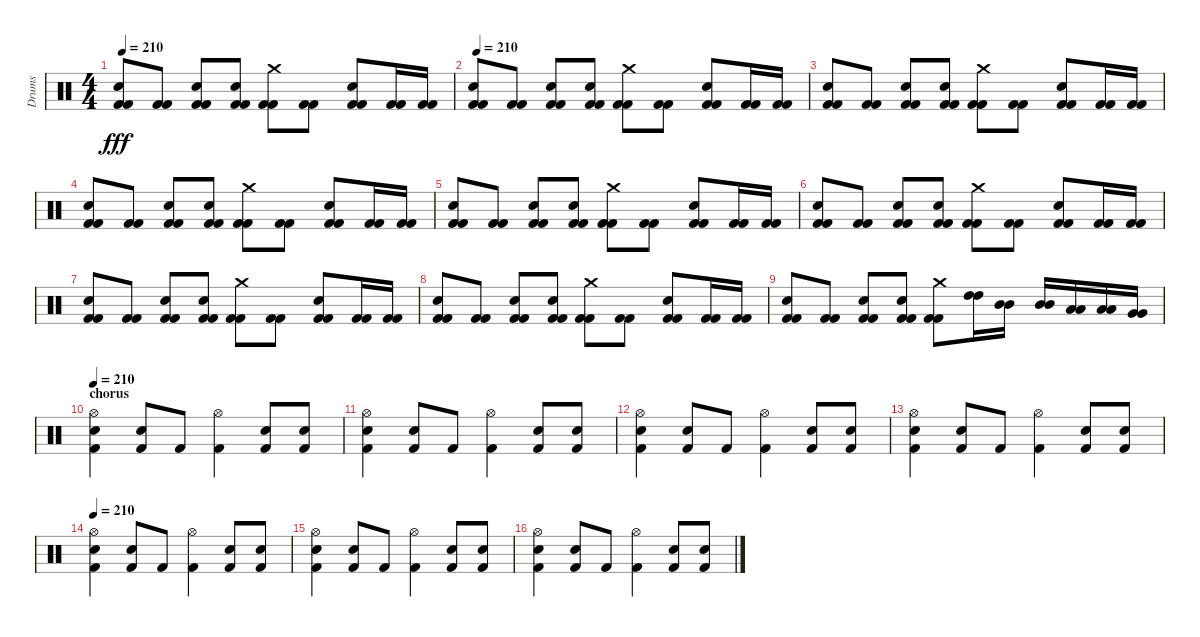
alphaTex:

\track ("Drums" "Drums") {instrument percussion}
\staff {score}
\articulation defaults
\ts (4 4)
\tempo 210
\clef neutral
\ks c
("Electric Snare (hit)" "Kick (hit) 2" "Kick (hit) 2").8{dy fff} ("Kick (hit) 2" "Kick (hit) 2").8 ("Electric Snare (hit)" "Kick (hit) 2" "Kick (hit) 2").8 ("Electric Snare (hit)" "Kick (hit) 2" "Kick (hit) 2").8 ("Crash medium (hit)" "Kick (hit) 2" "Kick (hit) 2").8 ("Kick (hit) 2" "Kick (hit) 2").8 ("Electric Snare (hit)" "Kick (hit) 2" "Kick (hit) 2").8 ("Kick (hit) 2" "Kick (hit) 2").16 ("Kick (hit) 2" "Kick (hit) 2").16 |
\tempo 210
("Electric Snare (hit)" "Kick (hit) 2" "Kick (hit) 2").8 ("Kick (hit) 2" "Kick (hit) 2").8 ("Electric Snare (hit)" "Kick (hit) 2" "Kick (hit) 2").8 ("Electric Snare (hit)" "Kick (hit) 2" "Kick (hit) 2").8 ("Crash medium (hit)" "Kick (hit) 2" "Kick (hit) 2").8 ("Kick (hit) 2" "Kick (hit) 2").8 ("Electric Snare (hit)" "Kick (hit) 2" "Kick (hit) 2").8 ("Kick (hit) 2" "Kick (hit) 2").16 ("Kick (hit) 2" "Kick (hit) 2").16 |
("Electric Snare (hit)" "Kick (hit) 2" "Kick (hit) 2").8 ("Kick (hit) 2" "Kick (hit) 2").8 ("Electric Snare (hit)" "Kick (hit) 2" "Kick (hit) 2").8 ("Electric Snare (hit)" "Kick (hit) 2" "Kick (hit) 2").8 ("Crash medium (hit)" "Kick (hit) 2" "Kick (hit) 2").8 ("Kick (hit) 2" "Kick (hit) 2").8 ("Electric Snare (hit)" "Kick (hit) 2" "Kick (hit) 2").8 ("Kick (hit) 2" "Kick (hit) 2").16 ("Kick (hit) 2" "Kick (hit) 2").16 |
("Electric Snare (hit)" "Kick (hit) 2" "Kick (hit) 2").8 ("Kick (hit) 2" "Kick (hit) 2").8 ("Electric Snare (hit)" "Kick (hit) 2" "Kick (hit) 2").8 ("Electric Snare (hit)" "Kick (hit) 2" "Kick (hit) 2").8 ("Crash medium (hit)" "Kick (hit) 2" "Kick (hit) 2").8 ("Kick (hit) 2" "Kick (hit) 2").8 ("Electric Snare (hit)" "Kick (hit) 2" "Kick (hit) 2").8 ("Kick (hit) 2" "Kick (hit) 2").16 ("Kick (hit) 2" "Kick (hit) 2").16 |
("Electric Snare (hit)" "Kick (hit) 2" "Kick (hit) 2").8 ("Kick (hit) 2" "Kick (hit) 2").8 ("Electric Snare (hit)" "Kick (hit) 2" "Kick (hit) 2").8 ("Electric Snare (hit)" "Kick (hit) 2" "Kick (hit) 2").8 ("Crash medium (hit)" "Kick (hit) 2" "Kick (hit) 2").8 ("Kick (hit) 2" "Kick (hit) 2").8 ("Electric Snare (hit)" "Kick (hit) 2" "Kick (hit) 2").8 ("Kick (hit) 2" "Kick (hit) 2").16 ("Kick (hit) 2" "Kick (hit) 2").16 |
("Electric Snare (hit)" "Kick (hit) 2" "Kick (hit) 2").8 ("Kick (hit) 2" "Kick (hit) 2").8 ("Electric Snare (hit)" "Kick (hit) 2" "Kick (hit) 2").8 ("Electric Snare (hit)" "Kick (hit) 2" "Kick (hit) 2").8 ("Crash medium (hit)" "Kick (hit) 2" "Kick (hit) 2").8 ("Kick (hit) 2" "Kick (hit) 2").8 ("Electric Snare (hit)" "Kick (hit) 2" "Kick (hit) 2").8 ("Kick (hit) 2" "Kick (hit) 2").16 ("Kick (hit) 2" "Kick (hit) 2").16 |
("Electric Snare (hit)" "Kick (hit) 2" "Kick (hit) 2").8 ("Kick (hit) 2" "Kick (hit) 2").8 ("Electric Snare (hit)" "Kick (hit) 2" "Kick (hit) 2").8 ("Electric Snare (hit)" "Kick (hit) 2" "Kick (hit) 2").8 ("Crash medium (hit)" "Kick (hit) 2" "Kick (hit) 2").8 ("Kick (hit) 2" "Kick (hit) 2").8 ("Electric Snare (hit)" "Kick (hit) 2" "Kick (hit) 2").8 ("Kick (hit) 2" "Kick (hit) 2").16 ("Kick (hit) 2" "Kick (hit) 2").16 |
("Electric Snare (hit)" "Kick (hit) 2" "Kick (hit) 2").8 ("Kick (hit) 2" "Kick (hit) 2").8 ("Electric Snare (hit)" "Kick (hit) 2" "Kick (hit) 2").8 ("Electric Snare (hit)" "Kick (hit) 2" "Kick (hit) 2").8 ("Crash medium (hit)" "Kick (hit) 2" "Kick (hit) 2").8 ("Kick (hit) 2" "Kick (hit) 2").8 ("Electric Snare (hit)" "Kick (hit) 2" "Kick (hit) 2").8 ("Kick (hit) 2" "Kick (hit) 2").16 ("Kick (hit) 2" "Kick (hit) 2").16 |
("Electric Snare (hit)" "Kick (hit) 2" "Kick (hit) 2").8 ("Kick (hit) 2" "Kick (hit) 2").8 ("Electric Snare (hit)" "Kick (hit) 2" "Kick (hit) 2").8 ("Electric Snare (hit)" "Kick (hit) 2" "Kick (hit) 2").8 ("Crash medium (hit)" "Kick (hit) 2" "Kick (hit) 2").8 ("High Tom (hit)" "High Tom (hit)").16 ("Mid Tom (hit)" "Mid Tom (hit)").16 ("Mid Tom (hit)" "Mid Tom (hit)").16 ("Low Tom (hit)" "Low Tom (hit)").16 ("Low Tom (hit)" "Low Tom (hit)").16 ("Very Low Tom (hit)" "Very Low Tom (hit)").16 |
\section ("" "chorus")
\tempo 210
("Electric Snare (hit)" "Hi-Hat (open)" "Kick (hit) 2").4 ("Electric Snare (hit)" "Kick (hit) 2").8 "Kick (hit) 2".8 ("Hi-Hat (open)" "Kick (hit) 2").4 ("Electric Snare (hit)" "Kick (hit) 2").8 ("Electric Snare (hit)" "Kick (hit) 2").8 |
("Electric Snare (hit)" "Hi-Hat (open)" "Kick (hit) 2").4 ("Electric Snare (hit)" "Kick (hit) 2").8 "Kick (hit) 2".8 ("Hi-Hat (open)" "Kick (hit) 2").4 ("Electric Snare (hit)" "Kick (hit) 2").8 ("Electric Snare (hit)" "Kick (hit) 2").8 |
("Electric Snare (hit)" "Hi-Hat (open)" "Kick (hit) 2").4 ("Electric Snare (hit)" "Kick (hit) 2").8 "Kick (hit) 2".8 ("Hi-Hat (open)" "Kick (hit) 2").4 ("Electric Snare (hit)" "Kick (hit) 2").8 ("Electric Snare (hit)" "Kick (hit) 2").8 |
("Electric Snare (hit)" "Hi-Hat (open)" "Kick (hit) 2").4 ("Electric Snare (hit)" "Kick (hit) 2").8 "Kick (hit) 2".8 ("Hi-Hat (open)" "Kick (hit) 2").4 ("Electric Snare (hit)" "Kick (hit) 2").8 ("Electric Snare (hit)" "Kick (hit) 2").8 |
\tempo 210
("Electric Snare (hit)" "Hi-Hat (open)" "Kick (hit) 2").4 ("Electric Snare (hit)" "Kick (hit) 2").8 "Kick (hit) 2".8 ("Hi-Hat (open)" "Kick (hit) 2").4 ("Electric Snare (hit)" "Kick (hit) 2").8 ("Electric Snare (hit)" "Kick (hit) 2").8 |
("Electric Snare (hit)" "Hi-Hat (open)" "Kick (hit) 2").4 ("Electric Snare (hit)" "Kick (hit) 2").8 "Kick (hit) 2".8 ("Hi-Hat (open)" "Kick (hit) 2").4 ("Electric Snare (hit)" "Kick (hit) 2").8 ("Electric Snare (hit)" "Kick (hit) 2").8 |
("Electric Snare (hit)" "Hi-Hat (open)" "Kick (hit) 2").4 ("Electric Snare (hit)" "Kick (hit) 2").8 "Kick (hit) 2".8 ("Hi-Hat (open)" "Kick (hit) 2").4 ("Electric Snare (hit)" "Kick (hit) 2").8 ("Electric Snare (hit)" "Kick (hit) 2").8
